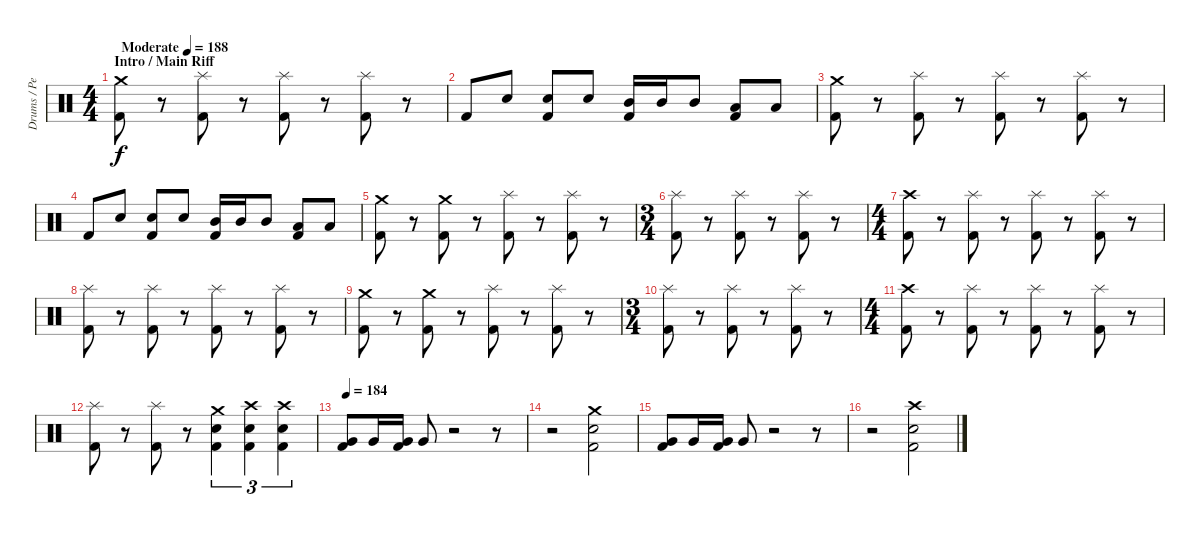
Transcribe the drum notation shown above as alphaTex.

\track ("Drums / Percussion" "Drums / Pe") {instrument percussion}
\staff {score}
\articulation defaults
\ts (4 4)
\section ("" "Intro / Main Riff")
\tempo (188 "Moderate")
\clef neutral
\ks c
("Crash medium (hit)" "Kick (hit) 2").8{dy f} r.8 ("Splash (hit)" "Kick (hit) 2").8 r.8 ("Splash (hit)" "Kick (hit) 2").8 r.8 ("Splash (hit)" "Kick (hit) 2").8 r.8 |
"Kick (hit) 2".8 "Electric Snare (hit)".8 ("Electric Snare (hit)" "Kick (hit) 2").8 "Electric Snare (hit)".8 ("Mid Tom (hit)" "Kick (hit) 2").16 "Mid Tom (hit)".16 "Mid Tom (hit)".8 ("Low Tom (hit)" "Kick (hit) 2").8 "Low Tom (hit)".8 |
("Crash medium (hit)" "Kick (hit) 2").8 r.8 ("Splash (hit)" "Kick (hit) 2").8 r.8 ("Splash (hit)" "Kick (hit) 2").8 r.8 ("Splash (hit)" "Kick (hit) 2").8 r.8 |
"Kick (hit) 2".8 "Electric Snare (hit)".8 ("Electric Snare (hit)" "Kick (hit) 2").8 "Electric Snare (hit)".8 ("Mid Tom (hit)" "Kick (hit) 2").16 "Mid Tom (hit)".16 "Mid Tom (hit)".8 ("Low Tom (hit)" "Kick (hit) 2").8 "Low Tom (hit)".8 |
("Crash medium (hit)" "Kick (hit) 2").8 r.8 ("Crash medium (hit)" "Kick (hit) 2").8 r.8 ("Splash (hit)" "Kick (hit) 2").8 r.8 ("Splash (hit)" "Kick (hit) 2").8 r.8 |
\ts (3 4)
("Splash (hit)" "Kick (hit) 2").8 r.8 ("Splash (hit)" "Kick (hit) 2").8 r.8 ("Splash (hit)" "Kick (hit) 2").8 r.8 |
\ts (4 4)
("Crash high (hit)" "Kick (hit) 2").8 r.8 ("Splash (hit)" "Kick (hit) 2").8 r.8 ("Splash (hit)" "Kick (hit) 2").8 r.8 ("Splash (hit)" "Kick (hit) 2").8 r.8 |
("Splash (hit)" "Kick (hit) 2").8 r.8 ("Splash (hit)" "Kick (hit) 2").8 r.8 ("Splash (hit)" "Kick (hit) 2").8 r.8 ("Splash (hit)" "Kick (hit) 2").8 r.8 |
("Crash medium (hit)" "Kick (hit) 2").8 r.8 ("Crash medium (hit)" "Kick (hit) 2").8 r.8 ("Splash (hit)" "Kick (hit) 2").8 r.8 ("Splash (hit)" "Kick (hit) 2").8 r.8 |
\ts (3 4)
("Splash (hit)" "Kick (hit) 2").8 r.8 ("Splash (hit)" "Kick (hit) 2").8 r.8 ("Splash (hit)" "Kick (hit) 2").8 r.8 |
\ts (4 4)
("Crash high (hit)" "Kick (hit) 2").8 r.8 ("Splash (hit)" "Kick (hit) 2").8 r.8 ("Splash (hit)" "Kick (hit) 2").8 r.8 ("Splash (hit)" "Kick (hit) 2").8 r.8 |
("Splash (hit)" "Kick (hit) 2").8 r.8 ("Splash (hit)" "Kick (hit) 2").8 r.8 ("Crash medium (hit)" "Electric Snare (hit)" "Kick (hit) 2").4{tu (3 2)} ("Crash high (hit)" "Electric Snare (hit)" "Kick (hit) 2").4{tu (3 2)} ("Crash high (hit)" "Electric Snare (hit)" "Kick (hit) 2").4{tu (3 2)} |
\tempo 184
("Very Low Tom (hit)" "Kick (hit) 2").8 "Very Low Tom (hit)".16 ("Very Low Tom (hit)" "Kick (hit) 2").16 "Very Low Tom (hit)".8 r.2 r.8 |
r.2 ("Crash medium (hit)" "Electric Snare (hit)" "Kick (hit) 2").2 |
("Very Low Tom (hit)" "Kick (hit) 2").8 "Very Low Tom (hit)".16 ("Very Low Tom (hit)" "Kick (hit) 2").16 "Very Low Tom (hit)".8 r.2 r.8 |
r.2 ("Crash high (hit)" "Electric Snare (hit)" "Kick (hit) 2").2
